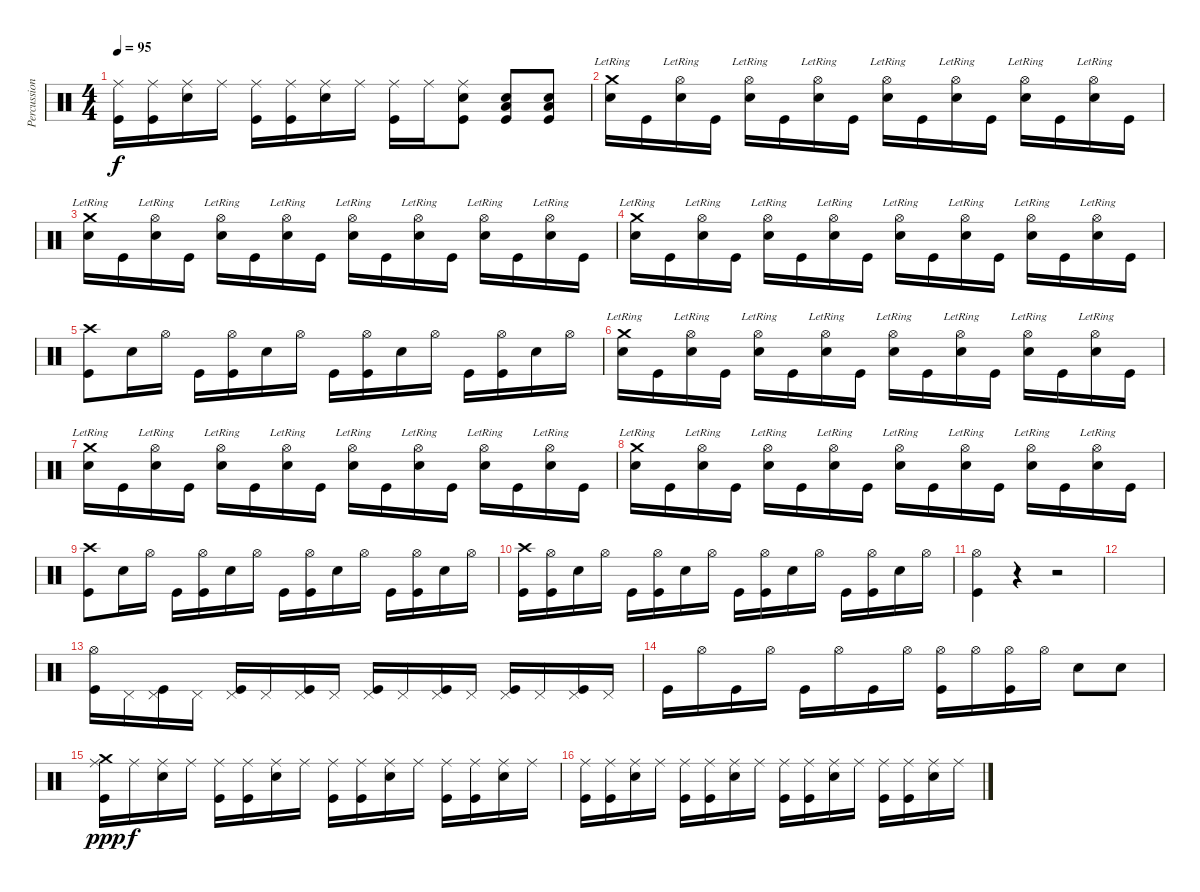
\track ("Percussion" "Percussion") {instrument percussion}
\staff {score}
\articulation defaults
\ts (4 4)
\tempo 95
\clef neutral
\ks c
("Ride (middle)" "Kick (hit)").16{dy f} ("Ride (middle)" "Kick (hit)").16 ("Ride (middle)" "Snare (hit) 2").16 "Ride (middle)".16 ("Ride (middle)" "Kick (hit)").16 ("Ride (middle)" "Kick (hit)").16 ("Ride (middle)" "Snare (hit) 2").16 "Ride (middle)".16 ("Ride (middle)" "Kick (hit)").16 "Ride (middle)".16 ("Ride (middle)" "Snare (hit) 2" "Kick (hit)").8 ("Snare (hit) 2" "Low Tom (hit)" "Kick (hit)").8 ("Snare (hit) 2" "Low Tom (hit)" "Kick (hit)").8 |
("Crash medium (hit)"{lr} "Snare (hit) 2").16 "Kick (hit)".16 ("Hi-Hat (open)"{lr} "Snare (hit) 2").16 "Kick (hit)".16 ("Hi-Hat (open)"{lr} "Snare (hit) 2").16 "Kick (hit)".16 ("Hi-Hat (open)"{lr} "Snare (hit) 2").16 "Kick (hit)".16 ("Hi-Hat (open)"{lr} "Snare (hit) 2").16 "Kick (hit)".16 ("Hi-Hat (open)"{lr} "Snare (hit) 2").16 "Kick (hit)".16 ("Hi-Hat (open)"{lr} "Snare (hit) 2").16 "Kick (hit)".16 ("Hi-Hat (open)"{lr} "Snare (hit) 2").16 "Kick (hit)".16 |
("Crash medium (hit)"{lr} "Snare (hit) 2").16 "Kick (hit)".16 ("Hi-Hat (open)"{lr} "Snare (hit) 2").16 "Kick (hit)".16 ("Hi-Hat (open)"{lr} "Snare (hit) 2").16 "Kick (hit)".16 ("Hi-Hat (open)"{lr} "Snare (hit) 2").16 "Kick (hit)".16 ("Hi-Hat (open)"{lr} "Snare (hit) 2").16 "Kick (hit)".16 ("Hi-Hat (open)"{lr} "Snare (hit) 2").16 "Kick (hit)".16 ("Hi-Hat (open)"{lr} "Snare (hit) 2").16 "Kick (hit)".16 ("Hi-Hat (open)"{lr} "Snare (hit) 2").16 "Kick (hit)".16 |
("Crash medium (hit)"{lr} "Snare (hit) 2").16 "Kick (hit)".16 ("Hi-Hat (open)"{lr} "Snare (hit) 2").16 "Kick (hit)".16 ("Hi-Hat (open)"{lr} "Snare (hit) 2").16 "Kick (hit)".16 ("Hi-Hat (open)"{lr} "Snare (hit) 2").16 "Kick (hit)".16 ("Hi-Hat (open)"{lr} "Snare (hit) 2").16 "Kick (hit)".16 ("Hi-Hat (open)"{lr} "Snare (hit) 2").16 "Kick (hit)".16 ("Hi-Hat (open)"{lr} "Snare (hit) 2").16 "Kick (hit)".16 ("Hi-Hat (open)"{lr} "Snare (hit) 2").16 "Kick (hit)".16 |
("Crash high (hit)" "Kick (hit)").8 "Snare (hit) 2".16 "Hi-Hat (open)".16 "Kick (hit)".16 ("Hi-Hat (open)" "Kick (hit)").16 "Snare (hit) 2".16 "Hi-Hat (open)".16 "Kick (hit)".16 ("Hi-Hat (open)" "Kick (hit)").16 "Snare (hit) 2".16 "Hi-Hat (open)".16 "Kick (hit)".16 ("Hi-Hat (open)" "Kick (hit)").16 "Snare (hit) 2".16 "Hi-Hat (open)".16 |
("Crash medium (hit)"{lr} "Snare (hit) 2").16 "Kick (hit)".16 ("Hi-Hat (open)"{lr} "Snare (hit) 2").16 "Kick (hit)".16 ("Hi-Hat (open)"{lr} "Snare (hit) 2").16 "Kick (hit)".16 ("Hi-Hat (open)"{lr} "Snare (hit) 2").16 "Kick (hit)".16 ("Hi-Hat (open)"{lr} "Snare (hit) 2").16 "Kick (hit)".16 ("Hi-Hat (open)"{lr} "Snare (hit) 2").16 "Kick (hit)".16 ("Hi-Hat (open)"{lr} "Snare (hit) 2").16 "Kick (hit)".16 ("Hi-Hat (open)"{lr} "Snare (hit) 2").16 "Kick (hit)".16 |
("Crash medium (hit)"{lr} "Snare (hit) 2").16 "Kick (hit)".16 ("Hi-Hat (open)"{lr} "Snare (hit) 2").16 "Kick (hit)".16 ("Hi-Hat (open)"{lr} "Snare (hit) 2").16 "Kick (hit)".16 ("Hi-Hat (open)"{lr} "Snare (hit) 2").16 "Kick (hit)".16 ("Hi-Hat (open)"{lr} "Snare (hit) 2").16 "Kick (hit)".16 ("Hi-Hat (open)"{lr} "Snare (hit) 2").16 "Kick (hit)".16 ("Hi-Hat (open)"{lr} "Snare (hit) 2").16 "Kick (hit)".16 ("Hi-Hat (open)"{lr} "Snare (hit) 2").16 "Kick (hit)".16 |
("Crash medium (hit)"{lr} "Snare (hit) 2").16 "Kick (hit)".16 ("Hi-Hat (open)"{lr} "Snare (hit) 2").16 "Kick (hit)".16 ("Hi-Hat (open)"{lr} "Snare (hit) 2").16 "Kick (hit)".16 ("Hi-Hat (open)"{lr} "Snare (hit) 2").16 "Kick (hit)".16 ("Hi-Hat (open)"{lr} "Snare (hit) 2").16 "Kick (hit)".16 ("Hi-Hat (open)"{lr} "Snare (hit) 2").16 "Kick (hit)".16 ("Hi-Hat (open)"{lr} "Snare (hit) 2").16 "Kick (hit)".16 ("Hi-Hat (open)"{lr} "Snare (hit) 2").16 "Kick (hit)".16 |
("Crash high (hit)" "Kick (hit)").8 "Snare (hit) 2".16 "Hi-Hat (open)".16 "Kick (hit)".16 ("Hi-Hat (open)" "Kick (hit)").16 "Snare (hit) 2".16 "Hi-Hat (open)".16 "Kick (hit)".16 ("Hi-Hat (open)" "Kick (hit)").16 "Snare (hit) 2".16 "Hi-Hat (open)".16 "Kick (hit)".16 ("Hi-Hat (open)" "Kick (hit)").16 "Snare (hit) 2".16 "Hi-Hat (open)".16 |
("Crash high (hit)" "Kick (hit)").16 ("Hi-Hat (open)" "Kick (hit)").16 "Snare (hit) 2".16 "Hi-Hat (open)".16 "Kick (hit)".16 ("Hi-Hat (open)" "Kick (hit)").16 "Snare (hit) 2".16 "Hi-Hat (open)".16 "Kick (hit)".16 ("Hi-Hat (open)" "Kick (hit)").16 "Snare (hit) 2".16 "Hi-Hat (open)".16 "Kick (hit)".16 ("Hi-Hat (open)" "Kick (hit)").16 "Snare (hit) 2".16 "Hi-Hat (open)".16 |
("Hi-Hat (open)" "Kick (hit)").4 r.4 r.2 |
|
("Hi-Hat (open)" "Kick (hit)").16 "Pedal Hi-Hat (hit)".16 ("Pedal Hi-Hat (hit)" "Kick (hit)").16 "Pedal Hi-Hat (hit)".16 ("Pedal Hi-Hat (hit)" "Kick (hit)").16 "Pedal Hi-Hat (hit)".16 ("Pedal Hi-Hat (hit)" "Kick (hit)").16 "Pedal Hi-Hat (hit)".16 ("Pedal Hi-Hat (hit)" "Kick (hit)").16 "Pedal Hi-Hat (hit)".16 ("Pedal Hi-Hat (hit)" "Kick (hit)").16 "Pedal Hi-Hat (hit)".16 ("Pedal Hi-Hat (hit)" "Kick (hit)").16 "Pedal Hi-Hat (hit)".16 ("Pedal Hi-Hat (hit)" "Kick (hit)").16 "Pedal Hi-Hat (hit)".16 |
"Kick (hit)".16 "Hi-Hat (open)".16 "Kick (hit)".16 "Hi-Hat (open)".16 "Kick (hit)".16 "Hi-Hat (open)".16 "Kick (hit)".16 "Hi-Hat (open)".16 ("Hi-Hat (open)" "Kick (hit)").16 "Hi-Hat (open)".16 ("Hi-Hat (open)" "Kick (hit)").16 "Hi-Hat (open)".16 "Snare (hit) 2".8 "Snare (hit) 2".8 |
("Crash medium (hit)" "Ride (middle)" "Kick (hit)").16{dy ppp} "Ride (middle)".16{dy f} ("Ride (middle)" "Snare (hit) 2").16 "Ride (middle)".16 ("Ride (middle)" "Kick (hit)").16 ("Ride (middle)" "Kick (hit)").16 ("Ride (middle)" "Snare (hit) 2").16 "Ride (middle)".16 ("Ride (middle)" "Kick (hit)").16 ("Ride (middle)" "Kick (hit)").16 ("Ride (middle)" "Snare (hit) 2").16 "Ride (middle)".16 ("Ride (middle)" "Kick (hit)").16 ("Ride (middle)" "Kick (hit)").16 ("Ride (middle)" "Snare (hit) 2").16 "Ride (middle)".16 |
("Ride (middle)" "Kick (hit)").16 ("Ride (middle)" "Kick (hit)").16 ("Ride (middle)" "Snare (hit) 2").16 "Ride (middle)".16 ("Ride (middle)" "Kick (hit)").16 ("Ride (middle)" "Kick (hit)").16 ("Ride (middle)" "Snare (hit) 2").16 "Ride (middle)".16 ("Ride (middle)" "Kick (hit)").16 ("Ride (middle)" "Kick (hit)").16 ("Ride (middle)" "Snare (hit) 2").16 "Ride (middle)".16 ("Ride (middle)" "Kick (hit)").16 ("Ride (middle)" "Kick (hit)").16 ("Ride (middle)" "Snare (hit) 2").16 "Ride (middle)".16
